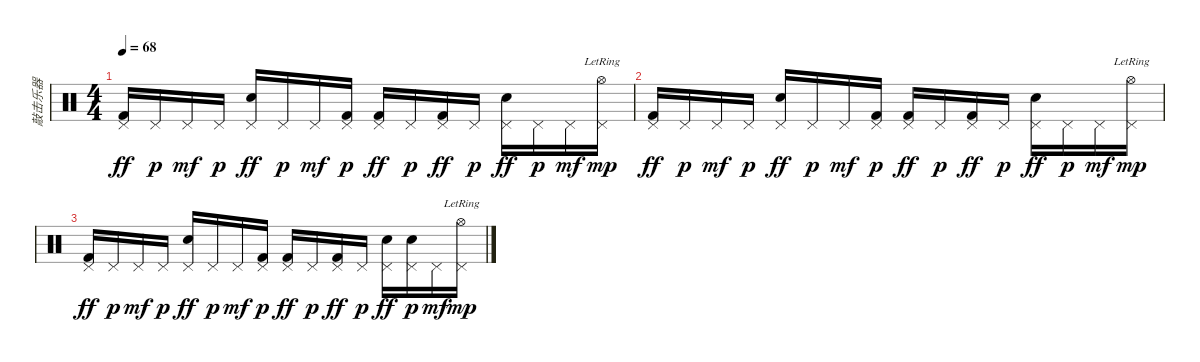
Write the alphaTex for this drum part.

\track ("敲击乐器" "敲击乐器") {instrument percussion}
\staff {score}
\articulation defaults
\ts (4 4)
\tempo 68
\clef neutral
\ks c
("Pedal Hi-Hat (hit)" "Kick (hit) 2").16{dy ff volume 1} "Pedal Hi-Hat (hit)".16{dy p} "Pedal Hi-Hat (hit)".16{dy mf} "Pedal Hi-Hat (hit)".16{dy p} ("Pedal Hi-Hat (hit)" "Electric Snare (hit)").16{dy ff} "Pedal Hi-Hat (hit)".16{dy p} "Pedal Hi-Hat (hit)".16{dy mf} ("Pedal Hi-Hat (hit)" "Kick (hit) 2").16{dy p} ("Pedal Hi-Hat (hit)" "Kick (hit) 2").16{dy ff} "Pedal Hi-Hat (hit)".16{dy p} ("Pedal Hi-Hat (hit)" "Kick (hit) 2").16{dy ff} "Pedal Hi-Hat (hit)".16{dy p} ("Pedal Hi-Hat (hit)" "Electric Snare (hit)").16{dy ff} "Pedal Hi-Hat (hit)".16{dy p} "Pedal Hi-Hat (hit)".16{dy mf} ("Pedal Hi-Hat (hit)" "Hi-Hat (open)"{lr}).16{dy mp} |
("Pedal Hi-Hat (hit)" "Kick (hit) 2").16{dy ff volume 0} "Pedal Hi-Hat (hit)".16{dy p} "Pedal Hi-Hat (hit)".16{dy mf} "Pedal Hi-Hat (hit)".16{dy p} ("Pedal Hi-Hat (hit)" "Electric Snare (hit)").16{dy ff} "Pedal Hi-Hat (hit)".16{dy p} "Pedal Hi-Hat (hit)".16{dy mf} ("Pedal Hi-Hat (hit)" "Kick (hit) 2").16{dy p} ("Pedal Hi-Hat (hit)" "Kick (hit) 2").16{dy ff} "Pedal Hi-Hat (hit)".16{dy p} ("Pedal Hi-Hat (hit)" "Kick (hit) 2").16{dy ff} "Pedal Hi-Hat (hit)".16{dy p} ("Pedal Hi-Hat (hit)" "Electric Snare (hit)").16{dy ff} "Pedal Hi-Hat (hit)".16{dy p} "Pedal Hi-Hat (hit)".16{dy mf} ("Pedal Hi-Hat (hit)" "Hi-Hat (open)"{lr}).16{dy mp} |
("Pedal Hi-Hat (hit)" "Kick (hit) 2").16{dy ff} "Pedal Hi-Hat (hit)".16{dy p} "Pedal Hi-Hat (hit)".16{dy mf} "Pedal Hi-Hat (hit)".16{dy p} ("Pedal Hi-Hat (hit)" "Electric Snare (hit)").16{dy ff} "Pedal Hi-Hat (hit)".16{dy p} "Pedal Hi-Hat (hit)".16{dy mf} ("Pedal Hi-Hat (hit)" "Kick (hit) 2").16{dy p} ("Pedal Hi-Hat (hit)" "Kick (hit) 2").16{dy ff} "Pedal Hi-Hat (hit)".16{dy p} ("Pedal Hi-Hat (hit)" "Kick (hit) 2").16{dy ff} "Pedal Hi-Hat (hit)".16{dy p} ("Pedal Hi-Hat (hit)" "Electric Snare (hit)").16{dy ff} ("Pedal Hi-Hat (hit)" "Electric Snare (hit)").16{dy p} "Pedal Hi-Hat (hit)".16{dy mf} ("Pedal Hi-Hat (hit)" "Hi-Hat (open)"{lr}).16{dy mp}
